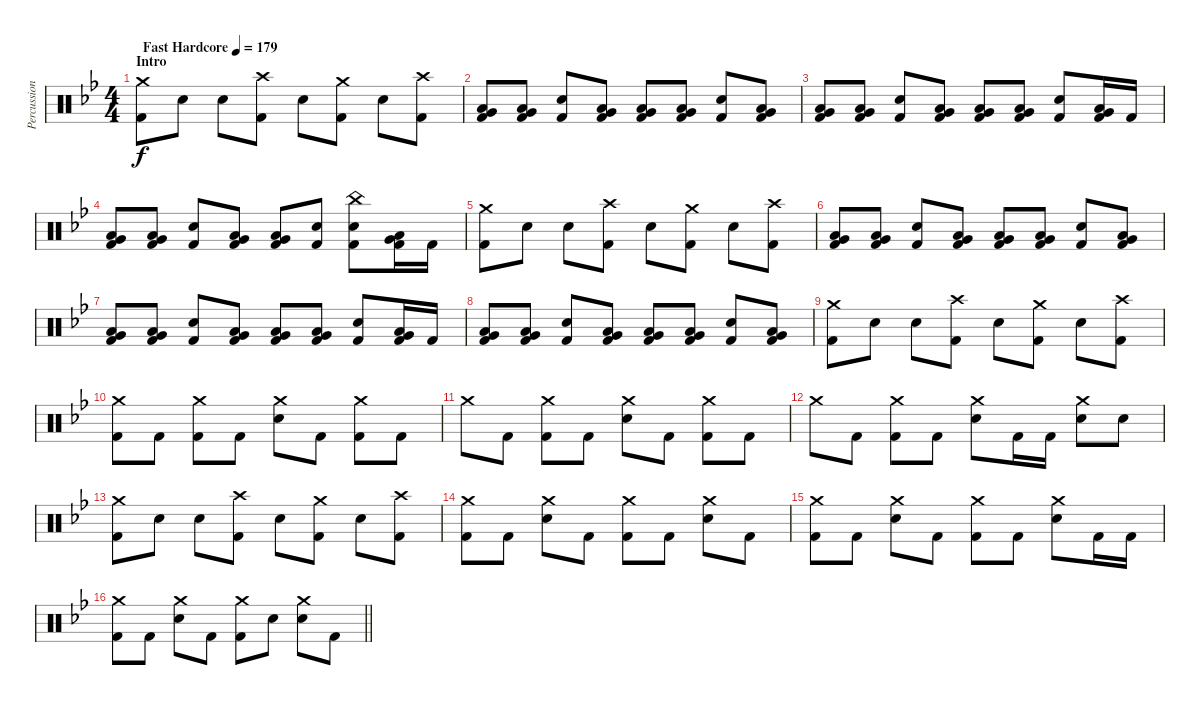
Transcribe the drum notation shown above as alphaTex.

\track ("Percussion" "Percussion") {instrument percussion}
\staff {score}
\articulation defaults
\ts (4 4)
\section ("" "Intro")
\tempo (179 "Fast Hardcore")
\clef neutral
\ks bb
("Crash medium (hit)" "Kick (hit) 2").8{dy f} "Electric Snare (hit)".8 "Electric Snare (hit)".8 ("Crash high (hit)" "Kick (hit) 2").8 "Electric Snare (hit)".8 ("Crash medium (hit)" "Kick (hit) 2").8 "Electric Snare (hit)".8 ("Crash high (hit)" "Kick (hit) 2").8 |
("Very Low Tom (hit)" "Low Floor Tom (hit)" "Kick (hit) 2").8 ("Very Low Tom (hit)" "Low Floor Tom (hit)" "Kick (hit) 2").8 ("Electric Snare (hit)" "Kick (hit) 2").8 ("Very Low Tom (hit)" "Low Floor Tom (hit)" "Kick (hit) 2").8 ("Very Low Tom (hit)" "Low Floor Tom (hit)" "Kick (hit) 2").8 ("Very Low Tom (hit)" "Low Floor Tom (hit)" "Kick (hit) 2").8 ("Electric Snare (hit)" "Kick (hit) 2").8 ("Very Low Tom (hit)" "Low Floor Tom (hit)" "Kick (hit) 2").8 |
("Very Low Tom (hit)" "Low Floor Tom (hit)" "Kick (hit) 2").8 ("Very Low Tom (hit)" "Low Floor Tom (hit)" "Kick (hit) 2").8 ("Electric Snare (hit)" "Kick (hit) 2").8 ("Very Low Tom (hit)" "Low Floor Tom (hit)" "Kick (hit) 2").8 ("Very Low Tom (hit)" "Low Floor Tom (hit)" "Kick (hit) 2").8 ("Very Low Tom (hit)" "Low Floor Tom (hit)" "Kick (hit) 2").8 ("Electric Snare (hit)" "Kick (hit) 2").8 ("Very Low Tom (hit)" "Low Floor Tom (hit)" "Kick (hit) 2").16 "Kick (hit) 2".16 |
("Very Low Tom (hit)" "Low Floor Tom (hit)" "Kick (hit) 2").8 ("Very Low Tom (hit)" "Low Floor Tom (hit)" "Kick (hit) 2").8 ("Electric Snare (hit)" "Kick (hit) 2").8 ("Very Low Tom (hit)" "Low Floor Tom (hit)" "Kick (hit) 2").8 ("Very Low Tom (hit)" "Low Floor Tom (hit)" "Kick (hit) 2").8 ("Electric Snare (hit)" "Kick (hit) 2").8 ("China (hit)" "Electric Snare (hit)" "Kick (hit) 2").8 ("Very Low Tom (hit)" "Low Floor Tom (hit)" "Kick (hit) 2").16 "Kick (hit) 2".16 |
("Crash medium (hit)" "Kick (hit) 2").8 "Electric Snare (hit)".8 "Electric Snare (hit)".8 ("Crash high (hit)" "Kick (hit) 2").8 "Electric Snare (hit)".8 ("Crash medium (hit)" "Kick (hit) 2").8 "Electric Snare (hit)".8 ("Crash high (hit)" "Kick (hit) 2").8 |
("Very Low Tom (hit)" "Low Floor Tom (hit)" "Kick (hit) 2").8 ("Very Low Tom (hit)" "Low Floor Tom (hit)" "Kick (hit) 2").8 ("Electric Snare (hit)" "Kick (hit) 2").8 ("Very Low Tom (hit)" "Low Floor Tom (hit)" "Kick (hit) 2").8 ("Very Low Tom (hit)" "Low Floor Tom (hit)" "Kick (hit) 2").8 ("Very Low Tom (hit)" "Low Floor Tom (hit)" "Kick (hit) 2").8 ("Electric Snare (hit)" "Kick (hit) 2").8 ("Very Low Tom (hit)" "Low Floor Tom (hit)" "Kick (hit) 2").8 |
("Very Low Tom (hit)" "Low Floor Tom (hit)" "Kick (hit) 2").8 ("Very Low Tom (hit)" "Low Floor Tom (hit)" "Kick (hit) 2").8 ("Electric Snare (hit)" "Kick (hit) 2").8 ("Very Low Tom (hit)" "Low Floor Tom (hit)" "Kick (hit) 2").8 ("Very Low Tom (hit)" "Low Floor Tom (hit)" "Kick (hit) 2").8 ("Very Low Tom (hit)" "Low Floor Tom (hit)" "Kick (hit) 2").8 ("Electric Snare (hit)" "Kick (hit) 2").8 ("Very Low Tom (hit)" "Low Floor Tom (hit)" "Kick (hit) 2").16 "Kick (hit) 2".16 |
("Very Low Tom (hit)" "Low Floor Tom (hit)" "Kick (hit) 2").8 ("Very Low Tom (hit)" "Low Floor Tom (hit)" "Kick (hit) 2").8 ("Electric Snare (hit)" "Kick (hit) 2").8 ("Very Low Tom (hit)" "Low Floor Tom (hit)" "Kick (hit) 2").8 ("Very Low Tom (hit)" "Low Floor Tom (hit)" "Kick (hit) 2").8 ("Very Low Tom (hit)" "Low Floor Tom (hit)" "Kick (hit) 2").8 ("Electric Snare (hit)" "Kick (hit) 2").8 ("Very Low Tom (hit)" "Low Floor Tom (hit)" "Kick (hit) 2").8 |
("Crash medium (hit)" "Kick (hit) 2").8 "Electric Snare (hit)".8 "Electric Snare (hit)".8 ("Crash high (hit)" "Kick (hit) 2").8 "Electric Snare (hit)".8 ("Crash medium (hit)" "Kick (hit) 2").8 "Electric Snare (hit)".8 ("Crash high (hit)" "Kick (hit) 2").8 |
("Crash medium (hit)" "Kick (hit) 2").8 "Kick (hit) 2".8 ("Crash medium (hit)" "Kick (hit) 2").8 "Kick (hit) 2".8 ("Crash medium (hit)" "Electric Snare (hit)").8 "Kick (hit) 2".8 ("Crash medium (hit)" "Kick (hit) 2").8 "Kick (hit) 2".8 |
"Crash medium (hit)".8 "Kick (hit) 2".8 ("Crash medium (hit)" "Kick (hit) 2").8 "Kick (hit) 2".8 ("Crash medium (hit)" "Electric Snare (hit)").8 "Kick (hit) 2".8 ("Crash medium (hit)" "Kick (hit) 2").8 "Kick (hit) 2".8 |
"Crash medium (hit)".8 "Kick (hit) 2".8 ("Crash medium (hit)" "Kick (hit) 2").8 "Kick (hit) 2".8 ("Crash medium (hit)" "Electric Snare (hit)").8 "Kick (hit) 2".16 "Kick (hit) 2".16 ("Crash medium (hit)" "Electric Snare (hit)").8 "Electric Snare (hit)".8 |
("Crash medium (hit)" "Kick (hit) 2").8 "Electric Snare (hit)".8 "Electric Snare (hit)".8 ("Crash high (hit)" "Kick (hit) 2").8 "Electric Snare (hit)".8 ("Crash medium (hit)" "Kick (hit) 2").8 "Electric Snare (hit)".8 ("Crash high (hit)" "Kick (hit) 2").8 |
("Crash medium (hit)" "Kick (hit) 2").8 "Kick (hit) 2".8 ("Crash medium (hit)" "Electric Snare (hit)").8 "Kick (hit) 2".8 ("Crash medium (hit)" "Kick (hit) 2").8 "Kick (hit) 2".8 ("Crash medium (hit)" "Electric Snare (hit)").8 "Kick (hit) 2".8 |
("Crash medium (hit)" "Kick (hit) 2").8 "Kick (hit) 2".8 ("Crash medium (hit)" "Electric Snare (hit)").8 "Kick (hit) 2".8 ("Crash medium (hit)" "Kick (hit) 2").8 "Kick (hit) 2".8 ("Crash medium (hit)" "Electric Snare (hit)").8 "Kick (hit) 2".16 "Kick (hit) 2".16 |
\barLineRight lightlight
("Crash medium (hit)" "Kick (hit) 2").8 "Kick (hit) 2".8 ("Crash medium (hit)" "Electric Snare (hit)").8 "Kick (hit) 2".8 ("Crash medium (hit)" "Kick (hit) 2").8 "Electric Snare (hit)".8 ("Crash medium (hit)" "Electric Snare (hit)").8 "Kick (hit) 2".8
